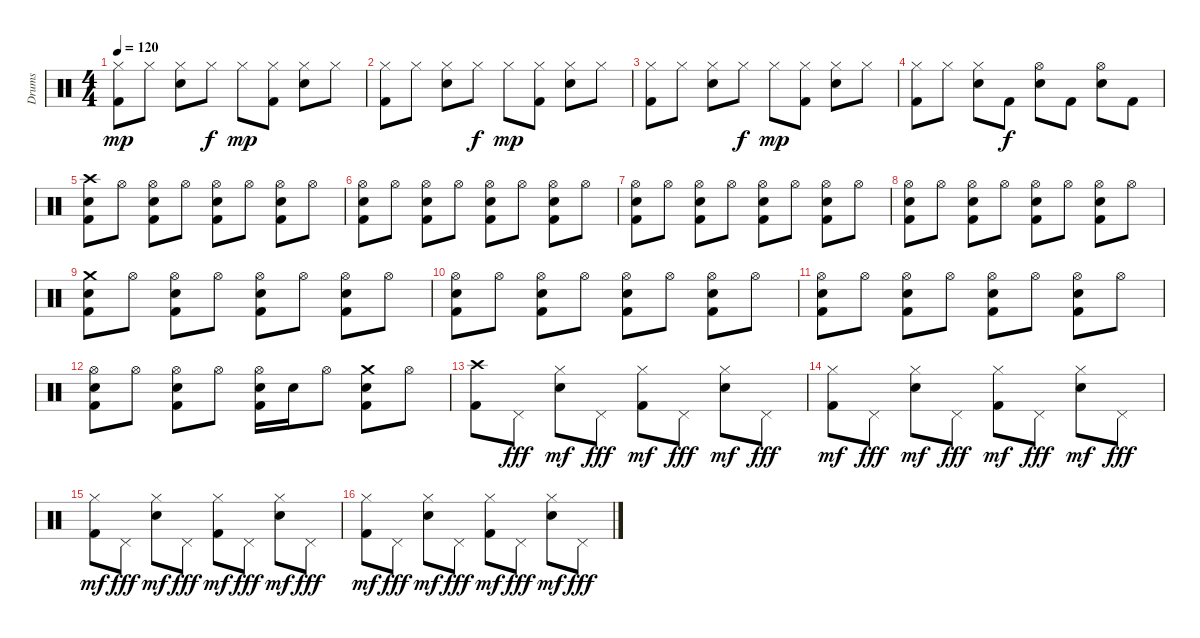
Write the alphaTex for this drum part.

\track ("Drums" "Drums") {instrument percussion}
\staff {score}
\articulation defaults
\ts (4 4)
\tempo 120
\clef neutral
\ks c
("Kick (hit) 2" "Hi-Hat (closed)").8{dy mp volume 9} "Hi-Hat (closed)".8 ("Hi-Hat (closed)" "Electric Snare (hit)").8 "Hi-Hat (closed)".8{dy f} "Hi-Hat (closed)".8{dy mp} ("Kick (hit) 2" "Hi-Hat (closed)").8 ("Hi-Hat (closed)" "Electric Snare (hit)").8 "Hi-Hat (closed)".8 |
("Kick (hit) 2" "Hi-Hat (closed)").8 "Hi-Hat (closed)".8 ("Hi-Hat (closed)" "Electric Snare (hit)").8 "Hi-Hat (closed)".8{dy f} "Hi-Hat (closed)".8{dy mp} ("Kick (hit) 2" "Hi-Hat (closed)").8 ("Hi-Hat (closed)" "Electric Snare (hit)").8 "Hi-Hat (closed)".8 |
("Kick (hit) 2" "Hi-Hat (closed)").8 "Hi-Hat (closed)".8 ("Hi-Hat (closed)" "Electric Snare (hit)").8 "Hi-Hat (closed)".8{dy f} "Hi-Hat (closed)".8{dy mp} ("Kick (hit) 2" "Hi-Hat (closed)").8 ("Hi-Hat (closed)" "Electric Snare (hit)").8 "Hi-Hat (closed)".8 |
("Kick (hit) 2" "Hi-Hat (closed)").8 "Hi-Hat (closed)".8 ("Hi-Hat (closed)" "Electric Snare (hit)").8 "Kick (hit) 2".8{dy f volume 13} ("Hi-Hat (open)" "Snare (hit) 2").8 "Kick (hit) 2".8 ("Hi-Hat (open)" "Snare (hit) 2").8 "Kick (hit) 2".8 |
("Kick (hit) 2" "Crash high (hit)" "Snare (hit) 2").8 "Hi-Hat (open)".8 ("Kick (hit) 2" "Hi-Hat (open)" "Snare (hit) 2").8 "Hi-Hat (open)".8 ("Kick (hit) 2" "Hi-Hat (open)" "Snare (hit) 2").8 "Hi-Hat (open)".8 ("Kick (hit) 2" "Hi-Hat (open)" "Snare (hit) 2").8 "Hi-Hat (open)".8 |
("Kick (hit) 2" "Hi-Hat (open)" "Snare (hit) 2").8 "Hi-Hat (open)".8 ("Kick (hit) 2" "Hi-Hat (open)" "Snare (hit) 2").8 "Hi-Hat (open)".8 ("Kick (hit) 2" "Hi-Hat (open)" "Snare (hit) 2").8 "Hi-Hat (open)".8 ("Kick (hit) 2" "Hi-Hat (open)" "Snare (hit) 2").8 "Hi-Hat (open)".8 |
("Kick (hit) 2" "Hi-Hat (open)" "Snare (hit) 2").8 "Hi-Hat (open)".8 ("Kick (hit) 2" "Hi-Hat (open)" "Snare (hit) 2").8 "Hi-Hat (open)".8 ("Kick (hit) 2" "Hi-Hat (open)" "Snare (hit) 2").8 "Hi-Hat (open)".8 ("Kick (hit) 2" "Hi-Hat (open)" "Snare (hit) 2").8 "Hi-Hat (open)".8 |
("Kick (hit) 2" "Hi-Hat (open)" "Snare (hit) 2").8 "Hi-Hat (open)".8 ("Kick (hit) 2" "Hi-Hat (open)" "Snare (hit) 2").8 "Hi-Hat (open)".8 ("Kick (hit) 2" "Hi-Hat (open)" "Snare (hit) 2").8 "Hi-Hat (open)".8 ("Kick (hit) 2" "Hi-Hat (open)" "Snare (hit) 2").8 "Hi-Hat (open)".8 |
("Kick (hit) 2" "Crash medium (hit)" "Snare (hit) 2").8 "Hi-Hat (open)".8 ("Kick (hit) 2" "Hi-Hat (open)" "Snare (hit) 2").8 "Hi-Hat (open)".8 ("Kick (hit) 2" "Hi-Hat (open)" "Snare (hit) 2").8 "Hi-Hat (open)".8 ("Kick (hit) 2" "Hi-Hat (open)" "Snare (hit) 2").8 "Hi-Hat (open)".8 |
("Kick (hit) 2" "Hi-Hat (open)" "Snare (hit) 2").8 "Hi-Hat (open)".8 ("Kick (hit) 2" "Hi-Hat (open)" "Snare (hit) 2").8 "Hi-Hat (open)".8 ("Kick (hit) 2" "Hi-Hat (open)" "Snare (hit) 2").8 "Hi-Hat (open)".8 ("Kick (hit) 2" "Hi-Hat (open)" "Snare (hit) 2").8 "Hi-Hat (open)".8 |
("Kick (hit) 2" "Hi-Hat (open)" "Snare (hit) 2").8 "Hi-Hat (open)".8 ("Kick (hit) 2" "Hi-Hat (open)" "Snare (hit) 2").8 "Hi-Hat (open)".8 ("Kick (hit) 2" "Hi-Hat (open)" "Snare (hit) 2").8 "Hi-Hat (open)".8 ("Kick (hit) 2" "Hi-Hat (open)" "Snare (hit) 2").8 "Hi-Hat (open)".8 |
("Kick (hit) 2" "Hi-Hat (open)" "Snare (hit) 2").8 "Hi-Hat (open)".8 ("Kick (hit) 2" "Hi-Hat (open)" "Snare (hit) 2").8 "Hi-Hat (open)".8 ("Kick (hit) 2" "Hi-Hat (open)" "Snare (hit) 2").16 "Snare (hit) 2".16 "Hi-Hat (open)".8 ("Kick (hit) 2" "Crash medium (hit)" "Snare (hit) 2").8 "Hi-Hat (open)".8 |
("Kick (hit) 2" "Crash high (hit)").8 "Pedal Hi-Hat (hit)".8{dy fff} ("Hi-Hat (closed)" "Snare (hit) 2").8{dy mf} "Pedal Hi-Hat (hit)".8{dy fff} ("Kick (hit) 2" "Hi-Hat (closed)").8{dy mf} "Pedal Hi-Hat (hit)".8{dy fff} ("Hi-Hat (closed)" "Snare (hit) 2").8{dy mf} "Pedal Hi-Hat (hit)".8{dy fff} |
("Kick (hit) 2" "Hi-Hat (closed)").8{dy mf} "Pedal Hi-Hat (hit)".8{dy fff} ("Hi-Hat (closed)" "Snare (hit) 2").8{dy mf} "Pedal Hi-Hat (hit)".8{dy fff} ("Kick (hit) 2" "Hi-Hat (closed)").8{dy mf} "Pedal Hi-Hat (hit)".8{dy fff} ("Hi-Hat (closed)" "Snare (hit) 2").8{dy mf} "Pedal Hi-Hat (hit)".8{dy fff} |
("Kick (hit) 2" "Hi-Hat (closed)").8{dy mf} "Pedal Hi-Hat (hit)".8{dy fff} ("Hi-Hat (closed)" "Snare (hit) 2").8{dy mf} "Pedal Hi-Hat (hit)".8{dy fff} ("Kick (hit) 2" "Hi-Hat (closed)").8{dy mf} "Pedal Hi-Hat (hit)".8{dy fff} ("Hi-Hat (closed)" "Snare (hit) 2").8{dy mf} "Pedal Hi-Hat (hit)".8{dy fff} |
("Kick (hit) 2" "Hi-Hat (closed)").8{dy mf} "Pedal Hi-Hat (hit)".8{dy fff} ("Hi-Hat (closed)" "Snare (hit) 2").8{dy mf} "Pedal Hi-Hat (hit)".8{dy fff} ("Kick (hit) 2" "Hi-Hat (closed)").8{dy mf} "Pedal Hi-Hat (hit)".8{dy fff} ("Hi-Hat (closed)" "Snare (hit) 2").8{dy mf} "Pedal Hi-Hat (hit)".8{dy fff}
